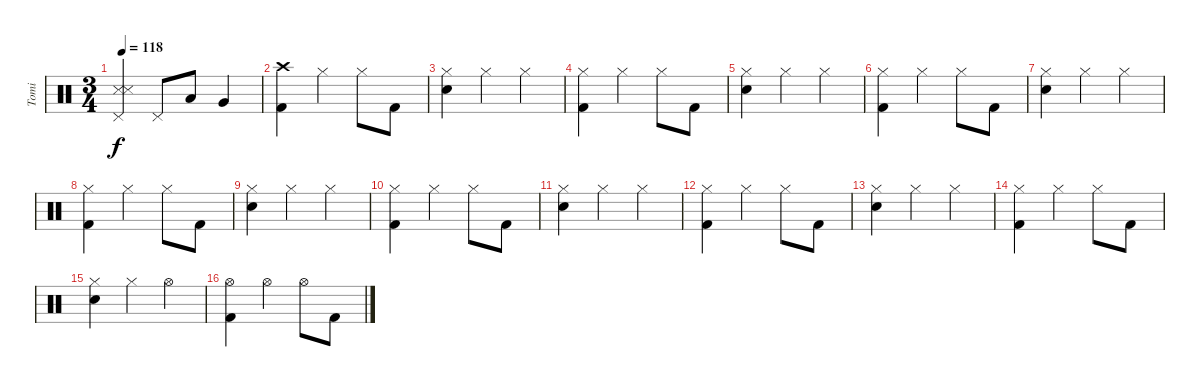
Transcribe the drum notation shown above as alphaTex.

\track ("Tomi" "Tomi") {instrument percussion}
\staff {score}
\articulation defaults
\ts (3 4)
\tempo 118
\clef neutral
\ks c
("Snare (side stick) 3" "Pedal Hi-Hat (hit)" "Snare (side stick) 3").4{dy f} "Pedal Hi-Hat (hit)".8 "Low Tom (hit)".8 "Very Low Tom (hit)".4 |
("Crash high (hit)" "Kick (hit) 2").4 "Hi-Hat (closed)".4 "Hi-Hat (closed)".8 "Kick (hit) 2".8 |
("Hi-Hat (closed)" "Electric Snare (hit)").4 "Hi-Hat (closed)".4 "Hi-Hat (closed)".4 |
("Hi-Hat (closed)" "Kick (hit) 2").4 "Hi-Hat (closed)".4 "Hi-Hat (closed)".8 "Kick (hit) 2".8 |
("Hi-Hat (closed)" "Electric Snare (hit)").4 "Hi-Hat (closed)".4 "Hi-Hat (closed)".4 |
("Hi-Hat (closed)" "Kick (hit) 2").4 "Hi-Hat (closed)".4 "Hi-Hat (closed)".8 "Kick (hit) 2".8 |
("Hi-Hat (closed)" "Electric Snare (hit)").4 "Hi-Hat (closed)".4 "Hi-Hat (closed)".4 |
("Hi-Hat (closed)" "Kick (hit) 2").4 "Hi-Hat (closed)".4 "Hi-Hat (closed)".8 "Kick (hit) 2".8 |
("Hi-Hat (closed)" "Electric Snare (hit)").4 "Hi-Hat (closed)".4 "Hi-Hat (closed)".4 |
("Hi-Hat (closed)" "Kick (hit) 2").4 "Hi-Hat (closed)".4 "Hi-Hat (closed)".8 "Kick (hit) 2".8 |
("Hi-Hat (closed)" "Electric Snare (hit)").4 "Hi-Hat (closed)".4 "Hi-Hat (closed)".4 |
("Hi-Hat (closed)" "Kick (hit) 2").4 "Hi-Hat (closed)".4 "Hi-Hat (closed)".8 "Kick (hit) 2".8 |
("Hi-Hat (closed)" "Electric Snare (hit)").4 "Hi-Hat (closed)".4 "Hi-Hat (closed)".4 |
("Hi-Hat (closed)" "Kick (hit) 2").4 "Hi-Hat (closed)".4 "Hi-Hat (closed)".8 "Kick (hit) 2".8 |
("Hi-Hat (closed)" "Electric Snare (hit)").4 "Hi-Hat (closed)".4 "Hi-Hat (open)".4 |
("Hi-Hat (open)" "Kick (hit) 2").4 "Hi-Hat (open)".4 "Hi-Hat (open)".8 "Kick (hit) 2".8
